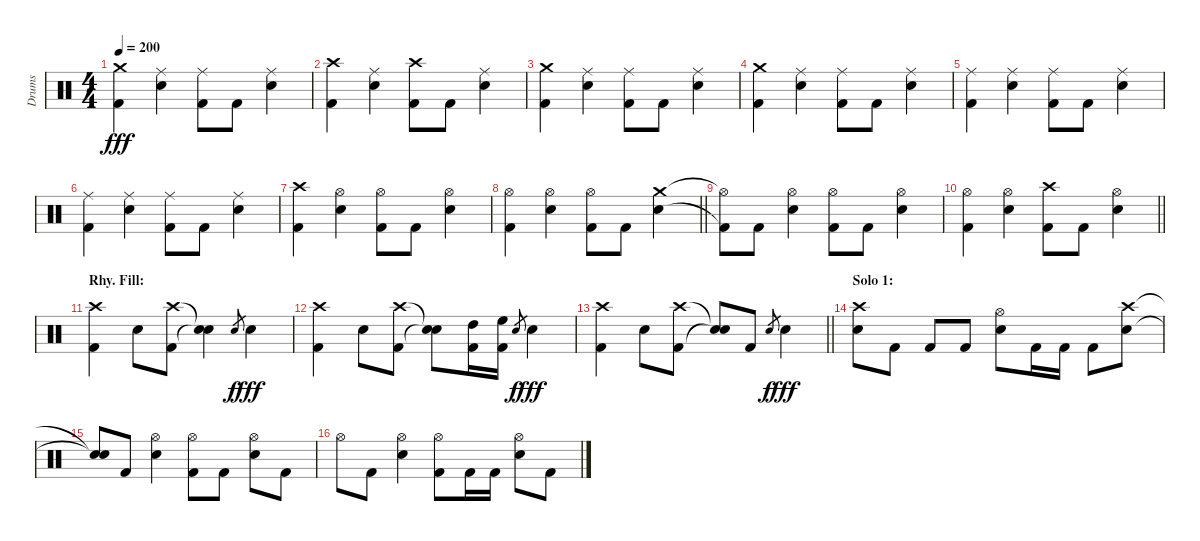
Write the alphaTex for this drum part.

\track ("Drums" "Drums") {instrument percussion}
\staff {score}
\articulation defaults
\ts (4 4)
\tempo 200
\clef neutral
\ks c
("Crash medium (hit)" "Kick (hit) 2").4{dy fff} ("Ride (middle)" "Electric Snare (hit)").4 ("Ride (middle)" "Kick (hit) 2").8 "Kick (hit) 2".8 ("Ride (middle)" "Electric Snare (hit)").4 |
("Crash high (hit)" "Kick (hit) 2").4 ("Ride (middle)" "Electric Snare (hit)").4 ("Crash high (hit)" "Kick (hit) 2").8 "Kick (hit) 2".8 ("Ride (middle)" "Electric Snare (hit)").4 |
("Crash medium (hit)" "Kick (hit) 2").4 ("Ride (middle)" "Electric Snare (hit)").4 ("Ride (middle)" "Kick (hit) 2").8 "Kick (hit) 2".8 ("Ride (middle)" "Electric Snare (hit)").4 |
("Crash medium (hit)" "Kick (hit) 2").4 ("Ride (middle)" "Electric Snare (hit)").4 ("Ride (middle)" "Kick (hit) 2").8 "Kick (hit) 2".8 ("Ride (middle)" "Electric Snare (hit)").4 |
("Ride (middle)" "Kick (hit) 2").4 ("Ride (middle)" "Electric Snare (hit)").4 ("Ride (middle)" "Kick (hit) 2").8 "Kick (hit) 2".8 ("Ride (middle)" "Electric Snare (hit)").4 |
("Ride (middle)" "Kick (hit) 2").4 ("Ride (middle)" "Electric Snare (hit)").4 ("Ride (middle)" "Kick (hit) 2").8 "Kick (hit) 2".8 ("Ride (middle)" "Electric Snare (hit)").4 |
("Crash high (hit)" "Kick (hit) 2").4 ("Hi-Hat (open)" "Electric Snare (hit)").4 ("Hi-Hat (open)" "Kick (hit) 2").8 "Kick (hit) 2".8 ("Hi-Hat (open)" "Electric Snare (hit)").4 |
\barLineRight lightlight
("Hi-Hat (open)" "Kick (hit) 2").4 ("Hi-Hat (open)" "Electric Snare (hit)").4 ("Hi-Hat (open)" "Kick (hit) 2").8 "Kick (hit) 2".8 ("Crash medium (hit)" "Electric Snare (hit)").4 |
("Hi-Hat (open)"{t} "Kick (hit) 2"{t}).8 "Kick (hit) 2".8 ("Hi-Hat (open)" "Electric Snare (hit)").4 ("Hi-Hat (open)" "Kick (hit) 2").8 "Kick (hit) 2".8 ("Hi-Hat (open)" "Electric Snare (hit)").4 |
\barLineRight lightlight
("Hi-Hat (open)" "Kick (hit) 2").4 ("Hi-Hat (open)" "Electric Snare (hit)").4 ("Crash high (hit)" "Kick (hit) 2").8 "Kick (hit) 2".8 ("Hi-Hat (open)" "Electric Snare (hit)").4 |
\section ("" "Rhy. Fill:")
("Crash high (hit)" "Kick (hit) 2").4 "Electric Snare (hit)".8 ("Crash high (hit)" "Kick (hit) 2").8 ("Snare (hit)"{t} "Snare (hit)"{t}).4 "Electric Snare (hit)".8{gr dy f} "Electric Snare (hit)".4{dy fff} |
("Crash high (hit)" "Kick (hit) 2").4 "Electric Snare (hit)".8 ("Crash high (hit)" "Kick (hit) 2").8 ("Snare (hit)"{t} "Snare (hit)"{t}).8 ("High Tom (hit)" "Kick (hit) 2").16 ("High Floor Tom (hit)" "Kick (hit) 2").16 "Electric Snare (hit)".8{gr dy f} "Electric Snare (hit)".4{dy fff} |
\barLineRight lightlight
("Crash high (hit)" "Kick (hit) 2").4 "Electric Snare (hit)".8 ("Crash high (hit)" "Kick (hit) 2").8 ("Snare (hit)"{t} "Snare (hit)"{t}).8 "Kick (hit) 2".8 "Electric Snare (hit)".8{gr dy f} "Electric Snare (hit)".4{dy fff} |
\section ("" "Solo 1:")
("Crash high (hit)" "Electric Snare (hit)").8 "Kick (hit) 2".8 "Kick (hit) 2".8 "Kick (hit) 2".8 ("Hi-Hat (open)" "Electric Snare (hit)").8 "Kick (hit) 2".16 "Kick (hit) 2".16 "Kick (hit) 2".8 ("Crash high (hit)" "Electric Snare (hit)").8 |
("Snare (hit)"{t} "Snare (hit)"{t}).8 "Kick (hit) 2".8 ("Hi-Hat (open)" "Electric Snare (hit)").4 ("Hi-Hat (open)" "Kick (hit) 2").8 "Kick (hit) 2".8 ("Hi-Hat (open)" "Electric Snare (hit)").8 "Kick (hit) 2".8 |
"Hi-Hat (open)".8 "Kick (hit) 2".8 ("Hi-Hat (open)" "Electric Snare (hit)").4 ("Hi-Hat (open)" "Kick (hit) 2").8 "Kick (hit) 2".16 "Kick (hit) 2".16 ("Hi-Hat (open)" "Electric Snare (hit)").8 "Kick (hit) 2".8
